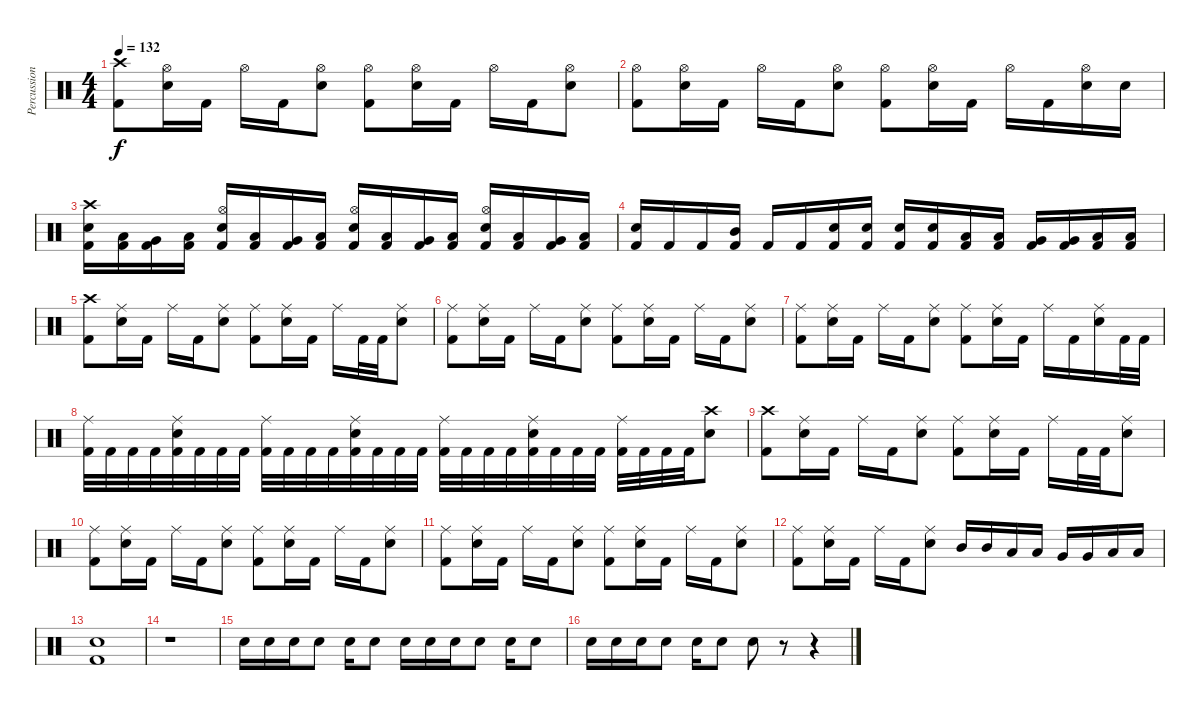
\track ("Percussion" "Percussion") {instrument percussion}
\staff {score}
\articulation defaults
\ts (4 4)
\tempo 132
\clef neutral
\ks c
("Crash high (hit)" "Kick (hit) 2").8{dy f} ("Hi-Hat (open)" "Snare (hit) 2").16 "Kick (hit) 2".16 "Hi-Hat (open)".16 "Kick (hit) 2".16 ("Hi-Hat (open)" "Snare (hit) 2").8 ("Hi-Hat (open)" "Kick (hit) 2").8 ("Hi-Hat (open)" "Snare (hit) 2").16 "Kick (hit) 2".16 "Hi-Hat (open)".16 "Kick (hit) 2".16 ("Hi-Hat (open)" "Snare (hit) 2").8 |
("Hi-Hat (open)" "Kick (hit) 2").8 ("Hi-Hat (open)" "Snare (hit) 2").16 "Kick (hit) 2".16 "Hi-Hat (open)".16 "Kick (hit) 2".16 ("Hi-Hat (open)" "Snare (hit) 2").8 ("Hi-Hat (open)" "Kick (hit) 2").8 ("Hi-Hat (open)" "Snare (hit) 2").16 "Kick (hit) 2".16 "Hi-Hat (open)".16 "Kick (hit) 2".16 ("Hi-Hat (open)" "Snare (hit) 2").16 "Snare (hit) 2".16 |
("Crash high (hit)" "Snare (hit) 2" "Kick (hit) 2").16 ("Low Tom (hit)" "Kick (hit) 2").16 ("Very Low Tom (hit)" "Kick (hit) 2").16 ("Low Floor Tom (hit)" "Kick (hit) 2").16 ("Hi-Hat (open)" "Snare (hit) 2" "Kick (hit) 2").16 ("Low Tom (hit)" "Kick (hit) 2").16 ("Very Low Tom (hit)" "Kick (hit) 2").16 ("Low Floor Tom (hit)" "Kick (hit) 2").16 ("Hi-Hat (open)" "Snare (hit) 2" "Kick (hit) 2").16 ("Low Tom (hit)" "Kick (hit) 2").16 ("Very Low Tom (hit)" "Kick (hit) 2").16 ("Low Floor Tom (hit)" "Kick (hit) 2").16 ("Hi-Hat (open)" "Snare (hit) 2" "Kick (hit) 2").16 ("Low Tom (hit)" "Kick (hit) 2").16 ("Very Low Tom (hit)" "Kick (hit) 2").16 ("Low Floor Tom (hit)" "Kick (hit) 2").16 |
("Snare (hit) 2" "Kick (hit) 2").16 "Kick (hit) 2".16 "Kick (hit) 2".16 ("Mid Tom (hit)" "Kick (hit) 2").16 "Kick (hit) 2".16 "Kick (hit) 2".16 ("Snare (hit) 2" "Kick (hit) 2").16 ("Snare (hit) 2" "Kick (hit) 2").16 ("Snare (hit) 2" "Kick (hit) 2").16 ("Snare (hit) 2" "Kick (hit) 2").16 ("Low Tom (hit)" "Kick (hit) 2").16 ("Low Tom (hit)" "Kick (hit) 2").16 ("Very Low Tom (hit)" "Kick (hit) 2").16 ("Very Low Tom (hit)" "Kick (hit) 2").16 ("Low Floor Tom (hit)" "Kick (hit) 2").16 ("Low Floor Tom (hit)" "Kick (hit) 2").16 |
("Crash high (hit)" "Kick (hit) 2").8 ("Ride (middle)" "Snare (hit) 2").16 "Kick (hit) 2".16 "Ride (middle)".16 "Kick (hit) 2".16 ("Ride (middle)" "Snare (hit) 2").8 ("Ride (middle)" "Kick (hit) 2").8 ("Ride (middle)" "Snare (hit) 2").16 "Kick (hit) 2".16 "Ride (middle)".16 "Kick (hit) 2".32 "Kick (hit) 2".32 ("Ride (middle)" "Snare (hit) 2").8 |
("Ride (middle)" "Kick (hit) 2").8 ("Ride (middle)" "Snare (hit) 2").16 "Kick (hit) 2".16 "Ride (middle)".16 "Kick (hit) 2".16 ("Ride (middle)" "Snare (hit) 2").8 ("Ride (middle)" "Kick (hit) 2").8 ("Ride (middle)" "Snare (hit) 2").16 "Kick (hit) 2".16 "Ride (middle)".16 "Kick (hit) 2".16 ("Ride (middle)" "Snare (hit) 2").8 |
("Ride (middle)" "Kick (hit) 2").8 ("Ride (middle)" "Snare (hit) 2").16 "Kick (hit) 2".16 "Ride (middle)".16 "Kick (hit) 2".16 ("Ride (middle)" "Snare (hit) 2").8 ("Ride (middle)" "Kick (hit) 2").8 ("Ride (middle)" "Snare (hit) 2").16 "Kick (hit) 2".16 "Ride (middle)".16 "Kick (hit) 2".16 ("Ride (middle)" "Snare (hit) 2").16 "Kick (hit) 2".32 "Kick (hit) 2".32 |
("Ride (middle)" "Kick (hit) 2").32 "Kick (hit) 2".32 "Kick (hit) 2".32 "Kick (hit) 2".32 ("Ride (middle)" "Snare (hit) 2" "Kick (hit) 2").32 "Kick (hit) 2".32 "Kick (hit) 2".32 "Kick (hit) 2".32 ("Ride (middle)" "Kick (hit) 2").32 "Kick (hit) 2".32 "Kick (hit) 2".32 "Kick (hit) 2".32 ("Ride (middle)" "Snare (hit) 2" "Kick (hit) 2").32 "Kick (hit) 2".32 "Kick (hit) 2".32 "Kick (hit) 2".32 ("Ride (middle)" "Kick (hit) 2").32 "Kick (hit) 2".32 "Kick (hit) 2".32 "Kick (hit) 2".32 ("Ride (middle)" "Snare (hit) 2" "Kick (hit) 2").32 "Kick (hit) 2".32 "Kick (hit) 2".32 "Kick (hit) 2".32 ("Ride (middle)" "Kick (hit) 2").32 "Kick (hit) 2".32 "Kick (hit) 2".32 "Kick (hit) 2".32 ("Crash high (hit)" "Snare (hit) 2").8 |
("Crash high (hit)" "Kick (hit) 2").8 ("Ride (middle)" "Snare (hit) 2").16 "Kick (hit) 2".16 "Ride (middle)".16 "Kick (hit) 2".16 ("Ride (middle)" "Snare (hit) 2").8 ("Ride (middle)" "Kick (hit) 2").8 ("Ride (middle)" "Snare (hit) 2").16 "Kick (hit) 2".16 "Ride (middle)".16 "Kick (hit) 2".32 "Kick (hit) 2".32 ("Ride (middle)" "Snare (hit) 2").8 |
("Ride (middle)" "Kick (hit) 2").8 ("Ride (middle)" "Snare (hit) 2").16 "Kick (hit) 2".16 "Ride (middle)".16 "Kick (hit) 2".16 ("Ride (middle)" "Snare (hit) 2").8 ("Ride (middle)" "Kick (hit) 2").8 ("Ride (middle)" "Snare (hit) 2").16 "Kick (hit) 2".16 "Ride (middle)".16 "Kick (hit) 2".16 ("Ride (middle)" "Snare (hit) 2").8 |
("Ride (middle)" "Kick (hit) 2").8 ("Ride (middle)" "Snare (hit) 2").16 "Kick (hit) 2".16 "Ride (middle)".16 "Kick (hit) 2".16 ("Ride (middle)" "Snare (hit) 2").8 ("Ride (middle)" "Kick (hit) 2").8 ("Ride (middle)" "Snare (hit) 2").16 "Kick (hit) 2".16 "Ride (middle)".16 "Kick (hit) 2".16 ("Ride (middle)" "Snare (hit) 2").8 |
("Ride (middle)" "Kick (hit) 2").8 ("Ride (middle)" "Snare (hit) 2").16 "Kick (hit) 2".16 "Ride (middle)".16 "Kick (hit) 2".16 ("Ride (middle)" "Snare (hit) 2").8 "Mid Tom (hit)".16 "Mid Tom (hit)".16 "Low Tom (hit)".16 "Low Tom (hit)".16 "Very Low Tom (hit)".16 "Very Low Tom (hit)".16 "Low Floor Tom (hit)".16 "Low Floor Tom (hit)".16 |
("Snare (hit) 2" "Kick (hit) 2").1 |
r.1 |
"Snare (hit) 2".16 "Snare (hit) 2".16 "Snare (hit) 2".16 "Snare (hit) 2".8 "Snare (hit) 2".16 "Snare (hit) 2".8 "Snare (hit) 2".16 "Snare (hit) 2".16 "Snare (hit) 2".16 "Snare (hit) 2".8 "Snare (hit) 2".16 "Snare (hit) 2".8 |
"Snare (hit) 2".16 "Snare (hit) 2".16 "Snare (hit) 2".16 "Snare (hit) 2".8 "Snare (hit) 2".16 "Snare (hit) 2".8 "Snare (hit) 2".8 r.8 r.4
